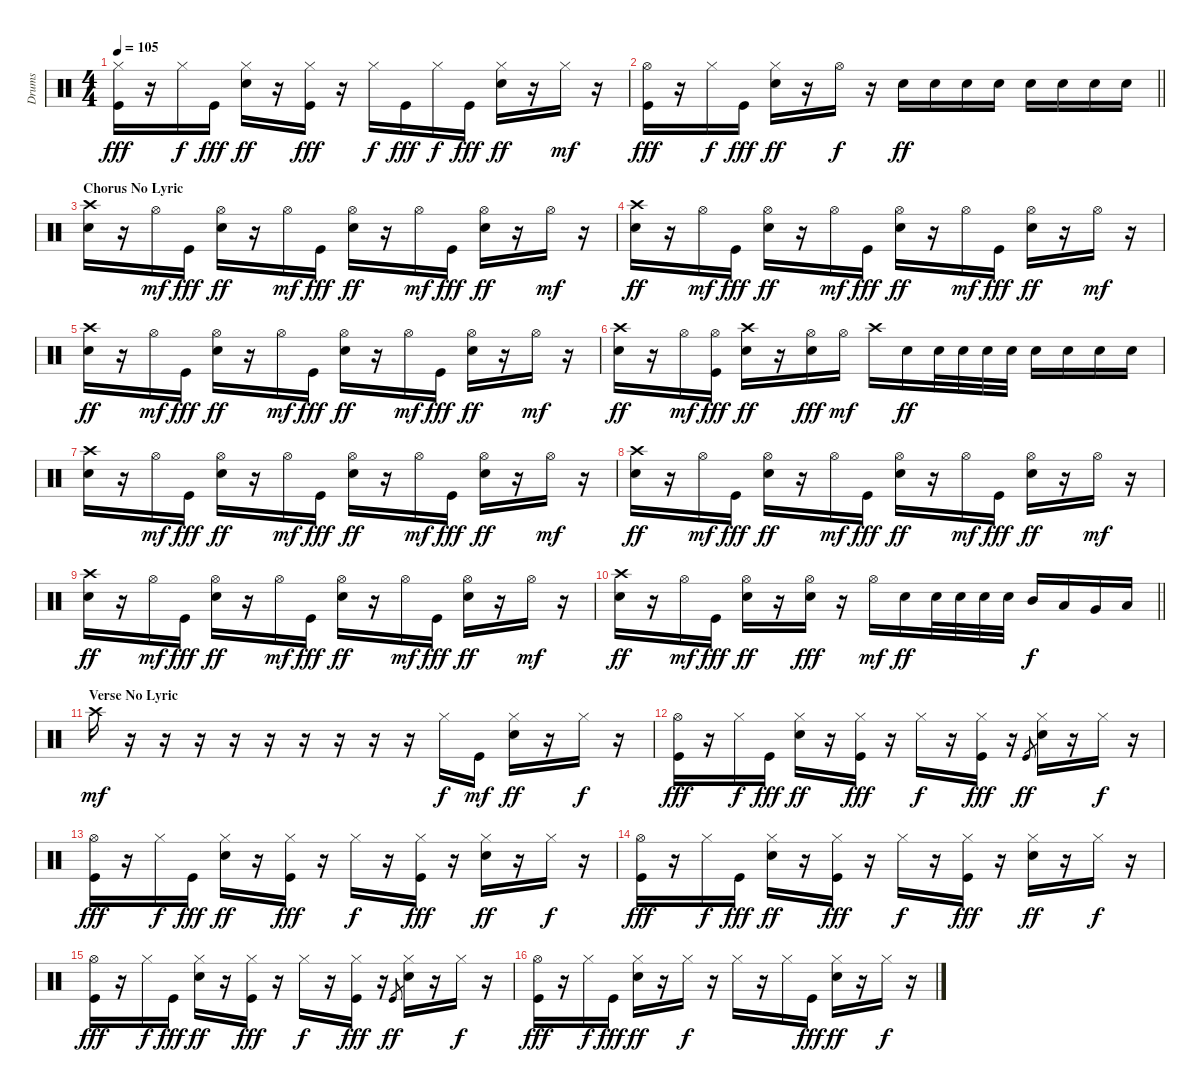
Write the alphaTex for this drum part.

\track ("Drums" "Drums") {instrument percussion}
\staff {score}
\articulation defaults
\ts (4 4)
\tempo 105
\clef neutral
\ks c
("Hi-Hat (closed)" "Kick (hit)").16{dy fff} r.16 "Hi-Hat (closed)".16{dy f} "Kick (hit)".16{dy fff} ("Hi-Hat (closed)" "Electric Snare (hit)").16{dy ff} r.16 ("Hi-Hat (closed)" "Kick (hit)").16{dy fff} r.16 "Hi-Hat (closed)".16{dy f} "Kick (hit)".16{dy fff} "Hi-Hat (closed)".16{dy f} "Kick (hit)".16{dy fff} ("Hi-Hat (closed)" "Electric Snare (hit)").16{dy ff} r.16 "Hi-Hat (closed)".16{dy mf} r.16 |
\barLineRight lightlight
("Hi-Hat (open)" "Kick (hit)").16{dy fff} r.16 "Hi-Hat (closed)".16{dy f} "Kick (hit)".16{dy fff} ("Hi-Hat (closed)" "Electric Snare (hit)").16{dy ff} r.16 "Hi-Hat (open)".16{dy f} r.16 "Electric Snare (hit)".16{dy ff} "Electric Snare (hit)".16 "Electric Snare (hit)".16 "Electric Snare (hit)".16 "Electric Snare (hit)".16 "Electric Snare (hit)".16 "Electric Snare (hit)".16 "Electric Snare (hit)".16 |
\section ("" "Chorus No Lyric")
("Crash high (hit)" "Electric Snare (hit)").16 r.16 "Hi-Hat (open)".16{dy mf} "Kick (hit)".16{dy fff} ("Hi-Hat (open)" "Electric Snare (hit)").16{dy ff} r.16 "Hi-Hat (open)".16{dy mf} "Kick (hit)".16{dy fff} ("Hi-Hat (open)" "Electric Snare (hit)").16{dy ff} r.16 "Hi-Hat (open)".16{dy mf} "Kick (hit)".16{dy fff} ("Hi-Hat (open)" "Electric Snare (hit)").16{dy ff} r.16 "Hi-Hat (open)".16{dy mf} r.16 |
("Crash high (hit)" "Electric Snare (hit)").16{dy ff} r.16 "Hi-Hat (open)".16{dy mf} "Kick (hit)".16{dy fff} ("Hi-Hat (open)" "Electric Snare (hit)").16{dy ff} r.16 "Hi-Hat (open)".16{dy mf} "Kick (hit)".16{dy fff} ("Hi-Hat (open)" "Electric Snare (hit)").16{dy ff} r.16 "Hi-Hat (open)".16{dy mf} "Kick (hit)".16{dy fff} ("Hi-Hat (open)" "Electric Snare (hit)").16{dy ff} r.16 "Hi-Hat (open)".16{dy mf} r.16 |
("Crash high (hit)" "Electric Snare (hit)").16{dy ff} r.16 "Hi-Hat (open)".16{dy mf} "Kick (hit)".16{dy fff} ("Hi-Hat (open)" "Electric Snare (hit)").16{dy ff} r.16 "Hi-Hat (open)".16{dy mf} "Kick (hit)".16{dy fff} ("Hi-Hat (open)" "Electric Snare (hit)").16{dy ff} r.16 "Hi-Hat (open)".16{dy mf} "Kick (hit)".16{dy fff} ("Hi-Hat (open)" "Electric Snare (hit)").16{dy ff} r.16 "Hi-Hat (open)".16{dy mf} r.16 |
("Crash high (hit)" "Electric Snare (hit)").16{dy ff} r.16 "Hi-Hat (open)".16{dy mf} ("Hi-Hat (open)" "Kick (hit)").16{dy fff} ("Crash high (hit)" "Electric Snare (hit)").16{dy ff} r.16 ("Hi-Hat (open)" "Electric Snare (hit)").16{dy fff} "Hi-Hat (open)".16{dy mf} "Crash high (hit)".16 "Electric Snare (hit)".16{dy ff} "Electric Snare (hit)".32 "Electric Snare (hit)".32 "Electric Snare (hit)".32 "Electric Snare (hit)".32 "Electric Snare (hit)".16 "Electric Snare (hit)".16 "Electric Snare (hit)".16 "Electric Snare (hit)".16 |
("Crash high (hit)" "Electric Snare (hit)").16 r.16 "Hi-Hat (open)".16{dy mf} "Kick (hit)".16{dy fff} ("Hi-Hat (open)" "Electric Snare (hit)").16{dy ff} r.16 "Hi-Hat (open)".16{dy mf} "Kick (hit)".16{dy fff} ("Hi-Hat (open)" "Electric Snare (hit)").16{dy ff} r.16 "Hi-Hat (open)".16{dy mf} "Kick (hit)".16{dy fff} ("Hi-Hat (open)" "Electric Snare (hit)").16{dy ff} r.16 "Hi-Hat (open)".16{dy mf} r.16 |
("Crash high (hit)" "Electric Snare (hit)").16{dy ff} r.16 "Hi-Hat (open)".16{dy mf} "Kick (hit)".16{dy fff} ("Hi-Hat (open)" "Electric Snare (hit)").16{dy ff} r.16 "Hi-Hat (open)".16{dy mf} "Kick (hit)".16{dy fff} ("Hi-Hat (open)" "Electric Snare (hit)").16{dy ff} r.16 "Hi-Hat (open)".16{dy mf} "Kick (hit)".16{dy fff} ("Hi-Hat (open)" "Electric Snare (hit)").16{dy ff} r.16 "Hi-Hat (open)".16{dy mf} r.16 |
("Crash high (hit)" "Electric Snare (hit)").16{dy ff} r.16 "Hi-Hat (open)".16{dy mf} "Kick (hit)".16{dy fff} ("Hi-Hat (open)" "Electric Snare (hit)").16{dy ff} r.16 "Hi-Hat (open)".16{dy mf} "Kick (hit)".16{dy fff} ("Hi-Hat (open)" "Electric Snare (hit)").16{dy ff} r.16 "Hi-Hat (open)".16{dy mf} "Kick (hit)".16{dy fff} ("Hi-Hat (open)" "Electric Snare (hit)").16{dy ff} r.16 "Hi-Hat (open)".16{dy mf} r.16 |
\barLineRight lightlight
("Crash high (hit)" "Electric Snare (hit)").16{dy ff} r.16 "Hi-Hat (open)".16{dy mf} "Kick (hit)".16{dy fff} ("Hi-Hat (open)" "Electric Snare (hit)").16{dy ff} r.16 ("Hi-Hat (open)" "Electric Snare (hit)").16{dy fff} r.16 "Hi-Hat (open)".16{dy mf} "Electric Snare (hit)".16{dy ff} "Electric Snare (hit)".32 "Electric Snare (hit)".32 "Electric Snare (hit)".32 "Electric Snare (hit)".32 "Mid Tom (hit)".16{dy f} "Low Tom (hit)".16 "Very Low Tom (hit)".16 "Low Floor Tom (hit)".16 |
\section ("" "Verse No Lyric")
"Crash high (hit)".16{dy mf} r.16 r.16 r.16 r.16 r.16 r.16 r.16 r.16 r.16 "Hi-Hat (closed)".16{dy f} "Kick (hit)".16{dy mf} ("Hi-Hat (closed)" "Electric Snare (hit)").16{dy ff} r.16 "Hi-Hat (closed)".16{dy f} r.16 |
("Hi-Hat (open)" "Kick (hit)").16{dy fff} r.16 "Hi-Hat (closed)".16{dy f} "Kick (hit)".16{dy fff} ("Hi-Hat (closed)" "Electric Snare (hit)").16{dy ff} r.16 ("Hi-Hat (closed)" "Kick (hit)").16{dy fff} r.16 "Hi-Hat (closed)".16{dy f} r.16 ("Hi-Hat (closed)" "Kick (hit)").16{dy fff} r.16 "Kick (hit)".8{gr dy ff} ("Hi-Hat (closed)" "Electric Snare (hit)").16 r.16 "Hi-Hat (closed)".16{dy f} r.16 |
("Hi-Hat (open)" "Kick (hit)").16{dy fff} r.16 "Hi-Hat (closed)".16{dy f} "Kick (hit)".16{dy fff} ("Hi-Hat (closed)" "Electric Snare (hit)").16{dy ff} r.16 ("Hi-Hat (closed)" "Kick (hit)").16{dy fff} r.16 "Hi-Hat (closed)".16{dy f} r.16 ("Hi-Hat (closed)" "Kick (hit)").16{dy fff} r.16 ("Hi-Hat (closed)" "Electric Snare (hit)").16{dy ff} r.16 "Hi-Hat (closed)".16{dy f} r.16 |
("Hi-Hat (open)" "Kick (hit)").16{dy fff} r.16 "Hi-Hat (closed)".16{dy f} "Kick (hit)".16{dy fff} ("Hi-Hat (closed)" "Electric Snare (hit)").16{dy ff} r.16 ("Hi-Hat (closed)" "Kick (hit)").16{dy fff} r.16 "Hi-Hat (closed)".16{dy f} r.16 ("Hi-Hat (closed)" "Kick (hit)").16{dy fff} r.16 ("Hi-Hat (closed)" "Electric Snare (hit)").16{dy ff} r.16 "Hi-Hat (closed)".16{dy f} r.16 |
("Hi-Hat (open)" "Kick (hit)").16{dy fff} r.16 "Hi-Hat (closed)".16{dy f} "Kick (hit)".16{dy fff} ("Hi-Hat (closed)" "Electric Snare (hit)").16{dy ff} r.16 ("Hi-Hat (closed)" "Kick (hit)").16{dy fff} r.16 "Hi-Hat (closed)".16{dy f} r.16 ("Hi-Hat (closed)" "Kick (hit)").16{dy fff} r.16 "Kick (hit)".8{gr dy ff} ("Hi-Hat (closed)" "Electric Snare (hit)").16 r.16 "Hi-Hat (closed)".16{dy f} r.16 |
("Hi-Hat (open)" "Kick (hit)").16{dy fff} r.16 "Hi-Hat (closed)".16{dy f} "Kick (hit)".16{dy fff} ("Hi-Hat (closed)" "Electric Snare (hit)").16{dy ff} r.16 "Hi-Hat (closed)".16{dy f} r.16 "Hi-Hat (closed)".16 r.16 "Hi-Hat (closed)".16 "Kick (hit)".16{dy fff} ("Hi-Hat (closed)" "Electric Snare (hit)").16{dy ff} r.16 "Hi-Hat (closed)".16{dy f} r.16
